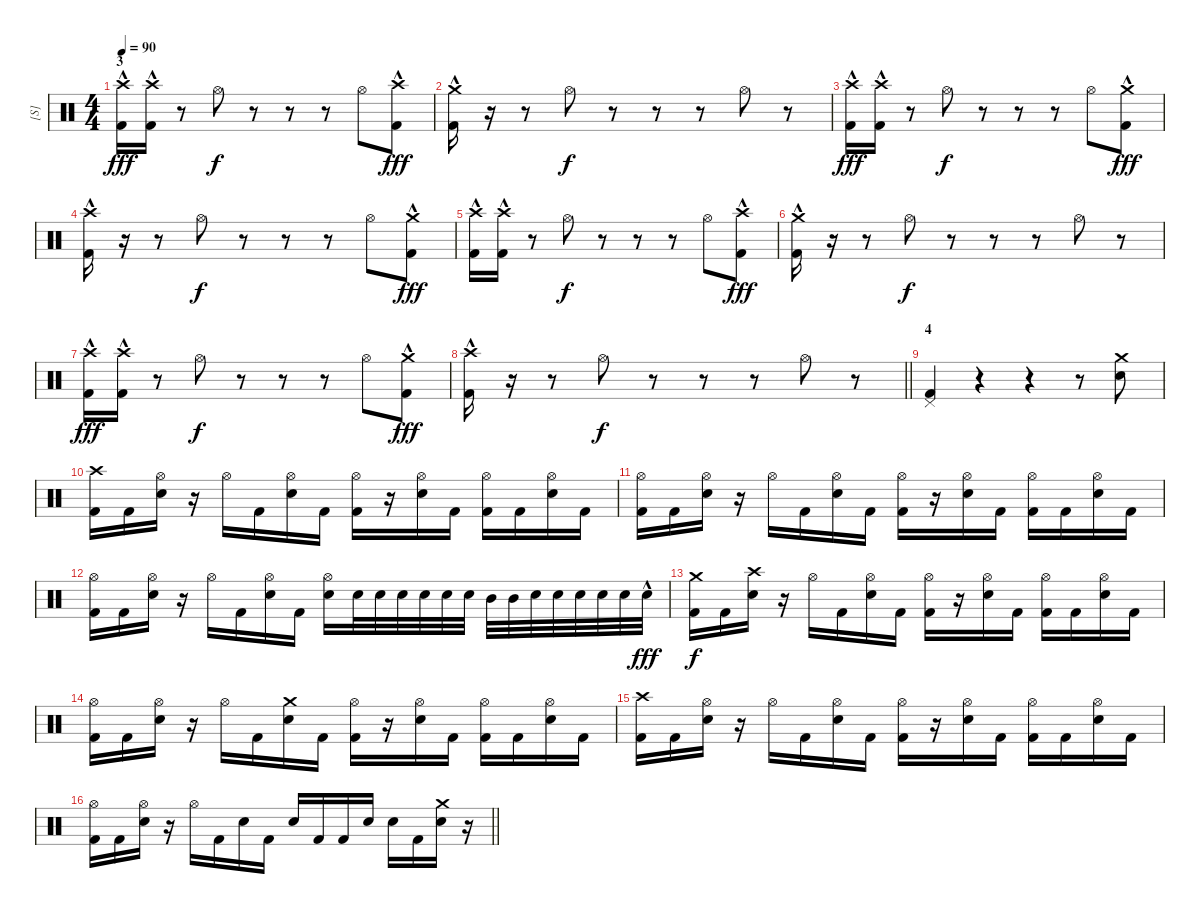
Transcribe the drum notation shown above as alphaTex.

\track ("[S]" "[S]") {instrument percussion}
\staff {score}
\articulation defaults
\ts (4 4)
\section ("" "3")
\tempo 90
\clef neutral
\ks c
("Crash high (hit)" "Kick (hit) 2"{hac}).16{dy fff} ("Crash high (hit)" "Kick (hit) 2"{hac}).16 r.8 "Hi-Hat (open)".8{dy f} r.8 r.8 r.8 "Hi-Hat (open)".8 ("Crash high (hit)" "Kick (hit) 2"{hac}).8{dy fff} |
("Crash medium (hit)" "Kick (hit) 2"{hac}).16 r.16 r.8 "Hi-Hat (open)".8{dy f} r.8 r.8 r.8 "Hi-Hat (open)".8 r.8 |
("Crash high (hit)" "Kick (hit) 2"{hac}).16{dy fff} ("Crash high (hit)" "Kick (hit) 2"{hac}).16 r.8 "Hi-Hat (open)".8{dy f} r.8 r.8 r.8 "Hi-Hat (open)".8 ("Crash medium (hit)" "Kick (hit) 2"{hac}).8{dy fff} |
("Crash high (hit)" "Kick (hit) 2"{hac}).16 r.16 r.8 "Hi-Hat (open)".8{dy f} r.8 r.8 r.8 "Hi-Hat (open)".8 ("Crash medium (hit)" "Kick (hit) 2"{hac}).8{dy fff} |
("Crash high (hit)" "Kick (hit) 2"{hac}).16 ("Crash high (hit)" "Kick (hit) 2"{hac}).16 r.8 "Hi-Hat (open)".8{dy f} r.8 r.8 r.8 "Hi-Hat (open)".8 ("Crash high (hit)" "Kick (hit) 2"{hac}).8{dy fff} |
("Crash medium (hit)" "Kick (hit) 2"{hac}).16 r.16 r.8 "Hi-Hat (open)".8{dy f} r.8 r.8 r.8 "Hi-Hat (open)".8 r.8 |
("Crash high (hit)" "Kick (hit) 2"{hac}).16{dy fff} ("Crash high (hit)" "Kick (hit) 2"{hac}).16 r.8 "Hi-Hat (open)".8{dy f} r.8 r.8 r.8 "Hi-Hat (open)".8 ("Crash medium (hit)" "Kick (hit) 2"{hac}).8{dy fff} |
\barLineRight lightlight
("Crash high (hit)" "Kick (hit) 2"{hac}).16 r.16 r.8 "Hi-Hat (open)".8{dy f} r.8 r.8 r.8 "Hi-Hat (open)".8 r.8 |
\section ("" "4")
("Pedal Hi-Hat (hit)" "Kick (hit) 2").4 r.4 r.4 r.8 ("Crash medium (hit)" "Electric Snare (hit)").8 |
("Crash high (hit)" "Kick (hit) 2").16 "Kick (hit) 2".16 ("Hi-Hat (open)" "Electric Snare (hit)").16 r.16 "Hi-Hat (open)".16 "Kick (hit) 2".16 ("Hi-Hat (open)" "Electric Snare (hit)").16 "Kick (hit) 2".16 ("Hi-Hat (open)" "Kick (hit) 2").16 r.16 ("Hi-Hat (open)" "Electric Snare (hit)").16 "Kick (hit) 2".16 ("Hi-Hat (open)" "Kick (hit) 2").16 "Kick (hit) 2".16 ("Hi-Hat (open)" "Electric Snare (hit)").16 "Kick (hit) 2".16 |
("Hi-Hat (open)" "Kick (hit) 2").16 "Kick (hit) 2".16 ("Hi-Hat (open)" "Electric Snare (hit)").16 r.16 "Hi-Hat (open)".16 "Kick (hit) 2".16 ("Hi-Hat (open)" "Electric Snare (hit)").16 "Kick (hit) 2".16 ("Hi-Hat (open)" "Kick (hit) 2").16 r.16 ("Hi-Hat (open)" "Electric Snare (hit)").16 "Kick (hit) 2".16 ("Hi-Hat (open)" "Kick (hit) 2").16 "Kick (hit) 2".16 ("Hi-Hat (open)" "Electric Snare (hit)").16 "Kick (hit) 2".16 |
("Hi-Hat (open)" "Kick (hit) 2").16 "Kick (hit) 2".16 ("Hi-Hat (open)" "Electric Snare (hit)").16 r.16 "Hi-Hat (open)".16 "Kick (hit) 2".16 ("Hi-Hat (open)" "Electric Snare (hit)").16 "Kick (hit) 2".16 ("Hi-Hat (open)" "Electric Snare (hit)").16 "Electric Snare (hit)".32 "Electric Snare (hit)".32 "Electric Snare (hit)".32 "Electric Snare (hit)".32 "Electric Snare (hit)".32 "Electric Snare (hit)".32 "Mid Tom (hit)".32 "Mid Tom (hit)".32 "Electric Snare (hit)".32 "Electric Snare (hit)".32 "Electric Snare (hit)".32 "Electric Snare (hit)".32 "Electric Snare (hit)".32 "Electric Snare (hit)"{hac}.32{dy fff} |
("Crash medium (hit)" "Kick (hit) 2").16{dy f} "Kick (hit) 2".16 ("Crash high (hit)" "Electric Snare (hit)").16 r.16 "Hi-Hat (open)".16 "Kick (hit) 2".16 ("Hi-Hat (open)" "Electric Snare (hit)").16 "Kick (hit) 2".16 ("Hi-Hat (open)" "Kick (hit) 2").16 r.16 ("Hi-Hat (open)" "Electric Snare (hit)").16 "Kick (hit) 2".16 ("Hi-Hat (open)" "Kick (hit) 2").16 "Kick (hit) 2".16 ("Hi-Hat (open)" "Electric Snare (hit)").16 "Kick (hit) 2".16 |
("Hi-Hat (open)" "Kick (hit) 2").16 "Kick (hit) 2".16 ("Hi-Hat (open)" "Electric Snare (hit)").16 r.16 "Hi-Hat (open)".16 "Kick (hit) 2".16 ("Crash medium (hit)" "Electric Snare (hit)").16 "Kick (hit) 2".16 ("Hi-Hat (open)" "Kick (hit) 2").16 r.16 ("Hi-Hat (open)" "Electric Snare (hit)").16 "Kick (hit) 2".16 ("Hi-Hat (open)" "Kick (hit) 2").16 "Kick (hit) 2".16 ("Hi-Hat (open)" "Electric Snare (hit)").16 "Kick (hit) 2".16 |
("Crash high (hit)" "Kick (hit) 2").16 "Kick (hit) 2".16 ("Hi-Hat (open)" "Electric Snare (hit)").16 r.16 "Hi-Hat (open)".16 "Kick (hit) 2".16 ("Hi-Hat (open)" "Electric Snare (hit)").16 "Kick (hit) 2".16 ("Hi-Hat (open)" "Kick (hit) 2").16 r.16 ("Hi-Hat (open)" "Electric Snare (hit)").16 "Kick (hit) 2".16 ("Hi-Hat (open)" "Kick (hit) 2").16 "Kick (hit) 2".16 ("Hi-Hat (open)" "Electric Snare (hit)").16 "Kick (hit) 2".16 |
\barLineRight lightlight
("Hi-Hat (open)" "Kick (hit) 2").16 "Kick (hit) 2".16 ("Hi-Hat (open)" "Electric Snare (hit)").16 r.16 "Hi-Hat (open)".16 "Kick (hit) 2".16 "Electric Snare (hit)".16 "Kick (hit) 2".16 "Electric Snare (hit)".16 "Kick (hit) 2".16 "Kick (hit) 2".16 "Electric Snare (hit)".16 "Electric Snare (hit)".16 "Kick (hit) 2".16 ("Crash medium (hit)" "Electric Snare (hit)").16 r.16
